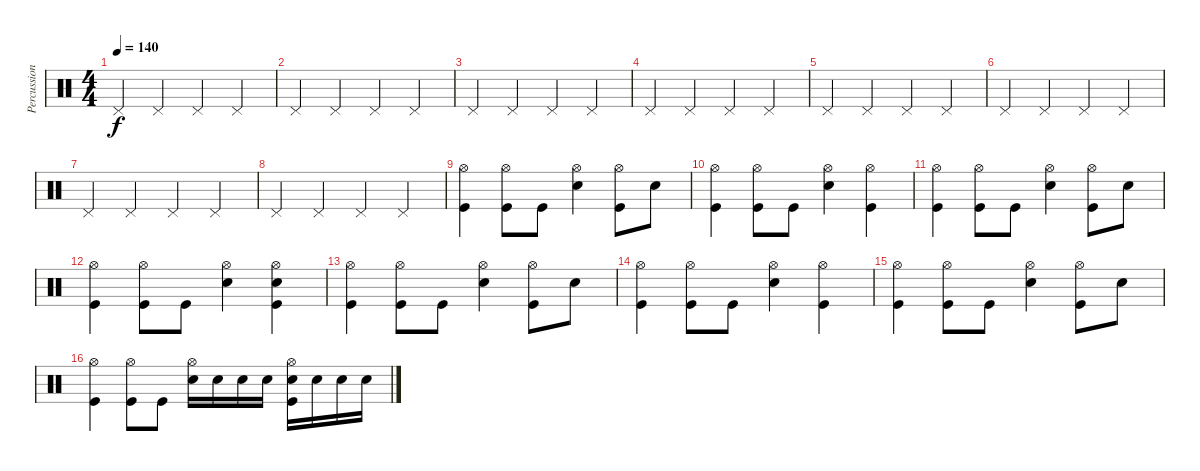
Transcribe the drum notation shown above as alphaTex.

\track ("Percussion" "Percussion") {instrument percussion}
\staff {score}
\articulation defaults
\ts (4 4)
\tempo 140
\clef neutral
\ks c "Pedal Hi-Hat (hit)".4{dy f volume 5} "Pedal Hi-Hat (hit)".4 "Pedal Hi-Hat (hit)".4 "Pedal Hi-Hat (hit)".4
|
"Pedal Hi-Hat (hit)".4 "Pedal Hi-Hat (hit)".4 "Pedal Hi-Hat (hit)".4 "Pedal Hi-Hat (hit)".4 |
"Pedal Hi-Hat (hit)".4 "Pedal Hi-Hat (hit)".4 "Pedal Hi-Hat (hit)".4 "Pedal Hi-Hat (hit)".4 |
"Pedal Hi-Hat (hit)".4 "Pedal Hi-Hat (hit)".4 "Pedal Hi-Hat (hit)".4 "Pedal Hi-Hat (hit)".4 |
"Pedal Hi-Hat (hit)".4 "Pedal Hi-Hat (hit)".4 "Pedal Hi-Hat (hit)".4 "Pedal Hi-Hat (hit)".4 |
"Pedal Hi-Hat (hit)".4 "Pedal Hi-Hat (hit)".4 "Pedal Hi-Hat (hit)".4 "Pedal Hi-Hat (hit)".4 |
"Pedal Hi-Hat (hit)".4 "Pedal Hi-Hat (hit)".4 "Pedal Hi-Hat (hit)".4 "Pedal Hi-Hat (hit)".4 |
"Pedal Hi-Hat (hit)".4 "Pedal Hi-Hat (hit)".4 "Pedal Hi-Hat (hit)".4 "Pedal Hi-Hat (hit)".4 |
("Hi-Hat (open)" "Kick (hit)").4{volume 16} ("Hi-Hat (open)" "Kick (hit)").8 "Kick (hit)".8 ("Hi-Hat (open)" "Snare (hit) 2").4 ("Hi-Hat (open)" "Kick (hit)").8 "Snare (hit) 2".8 |
("Hi-Hat (open)" "Kick (hit)").4 ("Hi-Hat (open)" "Kick (hit)").8 "Kick (hit)".8 ("Hi-Hat (open)" "Snare (hit) 2").4 ("Hi-Hat (open)" "Kick (hit)").4 |
("Hi-Hat (open)" "Kick (hit)").4 ("Hi-Hat (open)" "Kick (hit)").8 "Kick (hit)".8 ("Hi-Hat (open)" "Snare (hit) 2").4 ("Hi-Hat (open)" "Kick (hit)").8 "Snare (hit) 2".8 |
("Hi-Hat (open)" "Kick (hit)").4 ("Hi-Hat (open)" "Kick (hit)").8 "Kick (hit)".8 ("Hi-Hat (open)" "Snare (hit) 2").4 ("Hi-Hat (open)" "Snare (hit) 2" "Kick (hit)").4 |
("Hi-Hat (open)" "Kick (hit)").4 ("Hi-Hat (open)" "Kick (hit)").8 "Kick (hit)".8 ("Hi-Hat (open)" "Snare (hit) 2").4 ("Hi-Hat (open)" "Kick (hit)").8 "Snare (hit) 2".8 |
("Hi-Hat (open)" "Kick (hit)").4 ("Hi-Hat (open)" "Kick (hit)").8 "Kick (hit)".8 ("Hi-Hat (open)" "Snare (hit) 2").4 ("Hi-Hat (open)" "Kick (hit)").4 |
("Hi-Hat (open)" "Kick (hit)").4 ("Hi-Hat (open)" "Kick (hit)").8 "Kick (hit)".8 ("Hi-Hat (open)" "Snare (hit) 2").4 ("Hi-Hat (open)" "Kick (hit)").8 "Snare (hit) 2".8 |
("Hi-Hat (open)" "Kick (hit)").4 ("Hi-Hat (open)" "Kick (hit)").8 "Kick (hit)".8 ("Hi-Hat (open)" "Snare (hit) 2").16 "Snare (hit) 2".16 "Snare (hit) 2".16 "Snare (hit)"{x}.16 ("Hi-Hat (open)" "Snare (hit) 2" "Kick (hit)").16 "Snare (hit) 2".16 "Snare (hit) 2".16 "Snare (hit)"{x}.16
